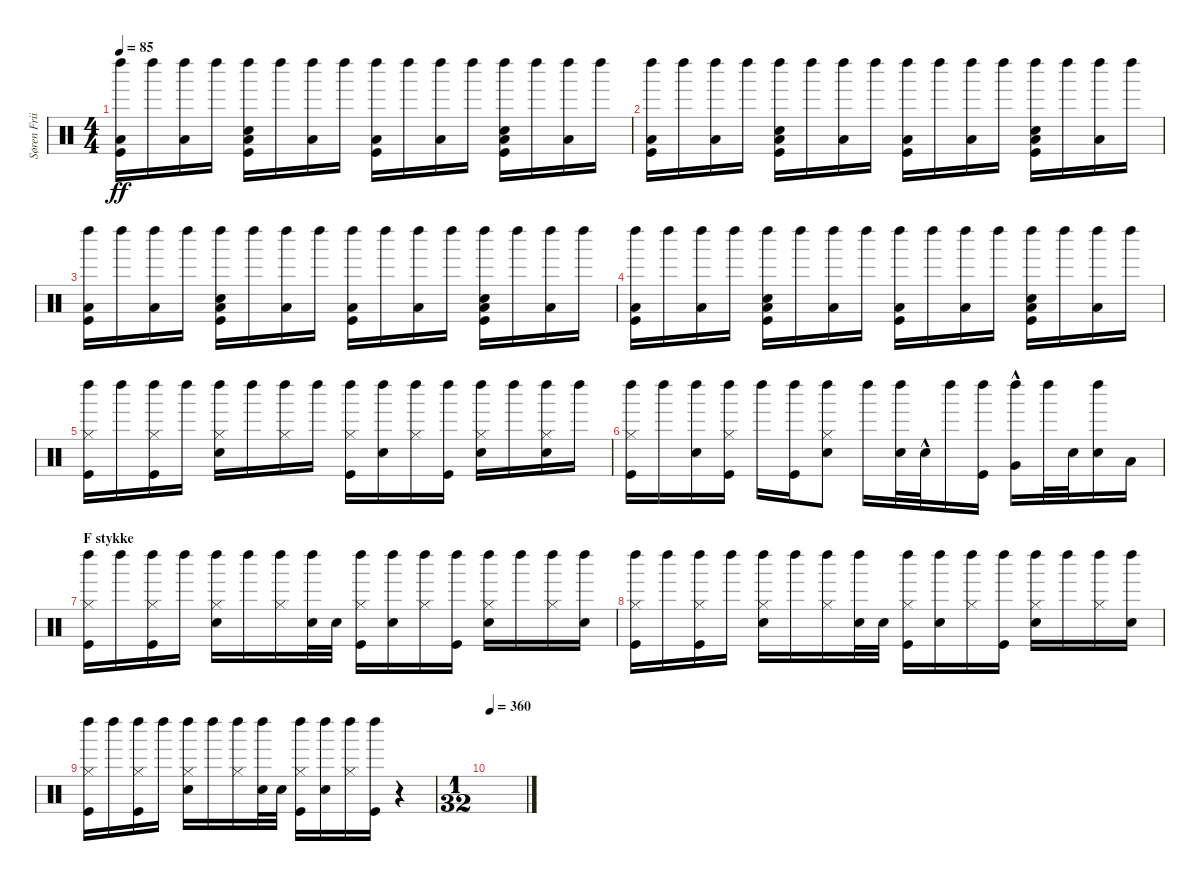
\track ("Søren Friis (Drums)" "Søren Frii") {instrument percussion}
\staff {score}
\articulation defaults
\ts (4 4)
\tempo 85
\clef neutral
\ks c
("Kick (hit)" "Low Floor Tom (hit)" "Left Maraca (hit)").16{dy ff} "Left Maraca (hit)".16 ("Low Floor Tom (hit)" "Left Maraca (hit)").16 "Left Maraca (hit)".16 ("Kick (hit)" "Snare (hit) 2" "Low Floor Tom (hit)" "Left Maraca (hit)").16 "Left Maraca (hit)".16 ("Low Floor Tom (hit)" "Left Maraca (hit)").16 "Left Maraca (hit)".16 ("Kick (hit)" "Low Floor Tom (hit)" "Left Maraca (hit)").16 "Left Maraca (hit)".16 ("Low Floor Tom (hit)" "Left Maraca (hit)").16 "Left Maraca (hit)".16 ("Kick (hit)" "Snare (hit) 2" "Low Floor Tom (hit)" "Left Maraca (hit)").16 "Left Maraca (hit)".16 ("Low Floor Tom (hit)" "Left Maraca (hit)").16 "Left Maraca (hit)".16 |
("Kick (hit)" "Low Floor Tom (hit)" "Left Maraca (hit)").16 "Left Maraca (hit)".16 ("Low Floor Tom (hit)" "Left Maraca (hit)").16 "Left Maraca (hit)".16 ("Kick (hit)" "Snare (hit) 2" "Low Floor Tom (hit)" "Left Maraca (hit)").16 "Left Maraca (hit)".16 ("Low Floor Tom (hit)" "Left Maraca (hit)").16 "Left Maraca (hit)".16 ("Kick (hit)" "Low Floor Tom (hit)" "Left Maraca (hit)").16 "Left Maraca (hit)".16 ("Low Floor Tom (hit)" "Left Maraca (hit)").16 "Left Maraca (hit)".16 ("Kick (hit)" "Snare (hit) 2" "Low Floor Tom (hit)" "Left Maraca (hit)").16 "Left Maraca (hit)".16 ("Low Floor Tom (hit)" "Left Maraca (hit)").16 "Left Maraca (hit)".16 |
("Kick (hit)" "Low Floor Tom (hit)" "Left Maraca (hit)").16 "Left Maraca (hit)".16 ("Low Floor Tom (hit)" "Left Maraca (hit)").16 "Left Maraca (hit)".16 ("Kick (hit)" "Snare (hit) 2" "Low Floor Tom (hit)" "Left Maraca (hit)").16 "Left Maraca (hit)".16 ("Low Floor Tom (hit)" "Left Maraca (hit)").16 "Left Maraca (hit)".16 ("Kick (hit)" "Low Floor Tom (hit)" "Left Maraca (hit)").16 "Left Maraca (hit)".16 ("Low Floor Tom (hit)" "Left Maraca (hit)").16 "Left Maraca (hit)".16 ("Kick (hit)" "Snare (hit) 2" "Low Floor Tom (hit)" "Left Maraca (hit)").16 "Left Maraca (hit)".16 ("Low Floor Tom (hit)" "Left Maraca (hit)").16 "Left Maraca (hit)".16 |
("Kick (hit)" "Low Floor Tom (hit)" "Left Maraca (hit)").16 "Left Maraca (hit)".16 ("Low Floor Tom (hit)" "Left Maraca (hit)").16 "Left Maraca (hit)".16 ("Kick (hit)" "Snare (hit) 2" "Low Floor Tom (hit)" "Left Maraca (hit)").16 "Left Maraca (hit)".16 ("Low Floor Tom (hit)" "Left Maraca (hit)").16 "Left Maraca (hit)".16 ("Kick (hit)" "Low Floor Tom (hit)" "Left Maraca (hit)").16 "Left Maraca (hit)".16 ("Low Floor Tom (hit)" "Left Maraca (hit)").16 "Left Maraca (hit)".16 ("Kick (hit)" "Snare (hit) 2" "Low Floor Tom (hit)" "Left Maraca (hit)").16 "Left Maraca (hit)".16 ("Low Floor Tom (hit)" "Left Maraca (hit)").16 "Left Maraca (hit)".16 |
("Kick (hit)" "Hi-Hat (closed)" "Left Maraca (hit)").16 "Left Maraca (hit)".16 ("Kick (hit)" "Hi-Hat (closed)" "Left Maraca (hit)").16 "Left Maraca (hit)".16 ("Snare (hit) 2" "Hi-Hat (closed)" "Left Maraca (hit)").16 "Left Maraca (hit)".16 ("Hi-Hat (closed)" "Left Maraca (hit)").16 "Left Maraca (hit)".16 ("Kick (hit)" "Hi-Hat (closed)" "Left Maraca (hit)").16 ("Snare (hit) 2" "Left Maraca (hit)").16 ("Hi-Hat (closed)" "Left Maraca (hit)").16 ("Kick (hit)" "Left Maraca (hit)").16 ("Snare (hit) 2" "Hi-Hat (closed)" "Left Maraca (hit)").16 "Left Maraca (hit)".16 ("Snare (hit) 2" "Hi-Hat (closed)" "Left Maraca (hit)").16 "Left Maraca (hit)".16 |
("Kick (hit)" "Hi-Hat (closed)" "Left Maraca (hit)").16 "Left Maraca (hit)".16 ("Snare (hit) 2" "Left Maraca (hit)").16 ("Kick (hit)" "Hi-Hat (closed)" "Left Maraca (hit)").16 "Left Maraca (hit)".16 ("Kick (hit)" "Left Maraca (hit)").16 ("Snare (hit) 2" "Hi-Hat (closed)" "Left Maraca (hit)").8 "Left Maraca (hit)".16 ("Snare (hit) 2" "Left Maraca (hit)").32 "Snare (hit) 2"{hac}.32 "Left Maraca (hit)".16 ("Kick (hit)" "Left Maraca (hit)").16 ("Very Low Tom (hit)"{hac} "Left Maraca (hit)").16 "Left Maraca (hit)".32 "Snare (hit) 2".32 ("Snare (hit) 2" "Left Maraca (hit)").16 "Low Floor Tom (hit)".16 |
\section ("" "F stykke")
("Kick (hit)" "Hi-Hat (closed)" "Left Maraca (hit)").16 "Left Maraca (hit)".16 ("Kick (hit)" "Hi-Hat (closed)" "Left Maraca (hit)").16 "Left Maraca (hit)".16 ("Snare (hit) 2" "Hi-Hat (closed)" "Left Maraca (hit)").16 "Left Maraca (hit)".16 ("Hi-Hat (closed)" "Left Maraca (hit)").16 ("Snare (hit) 2" "Left Maraca (hit)").32 "Snare (hit) 2".32 ("Kick (hit)" "Hi-Hat (closed)" "Left Maraca (hit)").16 ("Snare (hit) 2" "Left Maraca (hit)").16 ("Hi-Hat (closed)" "Left Maraca (hit)").16 ("Kick (hit)" "Left Maraca (hit)").16 ("Snare (hit) 2" "Hi-Hat (closed)" "Left Maraca (hit)").16 "Left Maraca (hit)".16 ("Hi-Hat (closed)" "Left Maraca (hit)").16 ("Snare (hit) 2" "Left Maraca (hit)").16 |
("Kick (hit)" "Hi-Hat (closed)" "Left Maraca (hit)").16 "Left Maraca (hit)".16 ("Kick (hit)" "Hi-Hat (closed)" "Left Maraca (hit)").16 "Left Maraca (hit)".16 ("Snare (hit) 2" "Hi-Hat (closed)" "Left Maraca (hit)").16 "Left Maraca (hit)".16 ("Hi-Hat (closed)" "Left Maraca (hit)").16 ("Snare (hit) 2" "Left Maraca (hit)").32 "Snare (hit) 2".32 ("Kick (hit)" "Hi-Hat (closed)" "Left Maraca (hit)").16 ("Snare (hit) 2" "Left Maraca (hit)").16 ("Hi-Hat (closed)" "Left Maraca (hit)").16 ("Kick (hit)" "Left Maraca (hit)").16 ("Snare (hit) 2" "Hi-Hat (closed)" "Left Maraca (hit)").16 "Left Maraca (hit)".16 ("Hi-Hat (closed)" "Left Maraca (hit)").16 ("Snare (hit) 2" "Left Maraca (hit)").16 |
("Kick (hit)" "Hi-Hat (closed)" "Left Maraca (hit)").16 "Left Maraca (hit)".16 ("Kick (hit)" "Hi-Hat (closed)" "Left Maraca (hit)").16 "Left Maraca (hit)".16 ("Snare (hit) 2" "Hi-Hat (closed)" "Left Maraca (hit)").16 "Left Maraca (hit)".16 ("Hi-Hat (closed)" "Left Maraca (hit)").16 ("Snare (hit) 2" "Left Maraca (hit)").32 "Snare (hit) 2".32 ("Kick (hit)" "Hi-Hat (closed)" "Left Maraca (hit)").16 ("Snare (hit) 2" "Left Maraca (hit)").16 ("Hi-Hat (closed)" "Left Maraca (hit)").16 ("Kick (hit)" "Left Maraca (hit)").16 r.4 |
\ts (1 32)
\tempo 360
